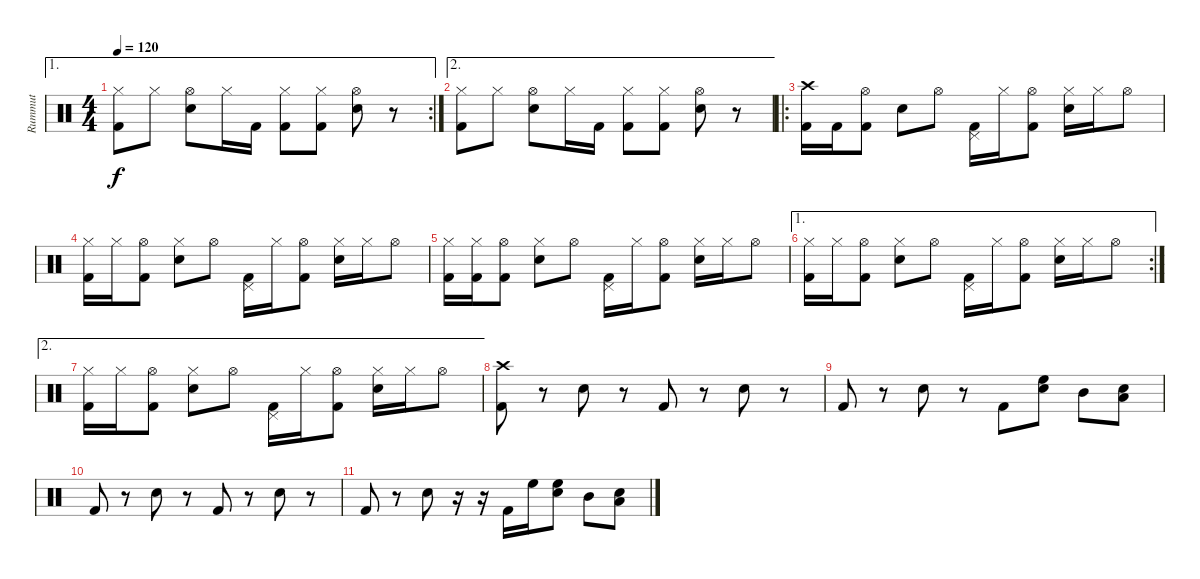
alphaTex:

\track ("Rummut" "Rummut") {instrument percussion}
\staff {score}
\articulation defaults
\ae 1
\rc 2
\ts (4 4)
\tempo 120
\clef neutral
\ks c
("Hi-Hat (closed)" "Kick (hit) 2").8{dy f} "Hi-Hat (closed)".8 ("Hi-Hat (open)" "Snare (hit) 2").8 "Hi-Hat (closed)".16 "Kick (hit) 2".16 ("Hi-Hat (closed)" "Kick (hit) 2").8 ("Hi-Hat (closed)" "Kick (hit) 2").8 ("Hi-Hat (open)" "Snare (hit) 2").8 r.8 |
\ae 2
("Hi-Hat (closed)" "Kick (hit) 2").8 "Hi-Hat (closed)".8 ("Hi-Hat (open)" "Snare (hit) 2").8 "Hi-Hat (closed)".16 "Kick (hit) 2".16 ("Hi-Hat (closed)" "Kick (hit) 2").8 ("Hi-Hat (closed)" "Kick (hit) 2").8 ("Hi-Hat (open)" "Snare (hit) 2").8 r.8 |
\ro
("Crash high (hit)" "Kick (hit) 2").16 "Kick (hit) 2".16 ("Hi-Hat (open)" "Kick (hit) 2").8 "Electric Snare (hit)".8 "Hi-Hat (open)".8 ("Pedal Hi-Hat (hit)" "Kick (hit) 2").16 "Hi-Hat (closed)".16 ("Hi-Hat (open)" "Kick (hit) 2").8 ("Hi-Hat (closed)" "Electric Snare (hit)").16 "Hi-Hat (closed)".16 "Hi-Hat (open)".8 |
("Hi-Hat (closed)" "Kick (hit) 2").16 "Hi-Hat (closed)".16 ("Hi-Hat (open)" "Kick (hit) 2").8 ("Hi-Hat (closed)" "Electric Snare (hit)").8 "Hi-Hat (open)".8 ("Pedal Hi-Hat (hit)" "Kick (hit) 2").16 "Hi-Hat (closed)".16 ("Hi-Hat (open)" "Kick (hit) 2").8 ("Hi-Hat (closed)" "Electric Snare (hit)").16 "Hi-Hat (closed)".16 "Hi-Hat (open)".8 |
("Hi-Hat (closed)" "Kick (hit) 2").16 ("Hi-Hat (closed)" "Kick (hit) 2").16 ("Hi-Hat (open)" "Kick (hit) 2").8 ("Hi-Hat (closed)" "Electric Snare (hit)").8 "Hi-Hat (open)".8 ("Pedal Hi-Hat (hit)" "Kick (hit) 2").16 "Hi-Hat (closed)".16 ("Hi-Hat (open)" "Kick (hit) 2").8 ("Hi-Hat (closed)" "Electric Snare (hit)").16 "Hi-Hat (closed)".16 "Hi-Hat (open)".8 |
\ae 1
\rc 2
("Hi-Hat (closed)" "Kick (hit) 2").16 "Hi-Hat (closed)".16 ("Hi-Hat (open)" "Kick (hit) 2").8 ("Hi-Hat (closed)" "Electric Snare (hit)").8 "Hi-Hat (open)".8 ("Pedal Hi-Hat (hit)" "Kick (hit) 2").16 "Hi-Hat (closed)".16 ("Hi-Hat (open)" "Kick (hit) 2").8 ("Hi-Hat (closed)" "Electric Snare (hit)").16 "Hi-Hat (closed)".16 "Hi-Hat (open)".8 |
\ae 2
("Hi-Hat (closed)" "Kick (hit) 2").16 "Hi-Hat (closed)".16 ("Hi-Hat (open)" "Kick (hit) 2").8 ("Hi-Hat (closed)" "Electric Snare (hit)").8 "Hi-Hat (open)".8 ("Pedal Hi-Hat (hit)" "Kick (hit) 2").16 "Hi-Hat (closed)".16 ("Hi-Hat (open)" "Kick (hit) 2").8 ("Hi-Hat (closed)" "Electric Snare (hit)").16 "Hi-Hat (closed)".16 "Hi-Hat (open)".8 |
("Crash high (hit)" "Kick (hit) 2").8 r.8 "Electric Snare (hit)".8 r.8 "Kick (hit) 2".8 r.8 "Electric Snare (hit)".8 r.8 |
"Kick (hit) 2".8 r.8 "Electric Snare (hit)".8 r.8 "Kick (hit) 2".8 ("High Floor Tom (hit)" "Electric Snare (hit)").8 "Mid Tom (hit)".8 ("Low Tom (hit)" "Electric Snare (hit)").8 |
"Kick (hit) 2".8 r.8 "Electric Snare (hit)".8 r.8 "Kick (hit) 2".8 r.8 "Electric Snare (hit)".8 r.8 |
"Kick (hit) 2".8 r.8 "Electric Snare (hit)".8 r.16 r.16 "Kick (hit) 2".16 "High Floor Tom (hit)".16 ("High Floor Tom (hit)" "Electric Snare (hit)").8 "Mid Tom (hit)".8 ("Low Tom (hit)" "Electric Snare (hit)").8
